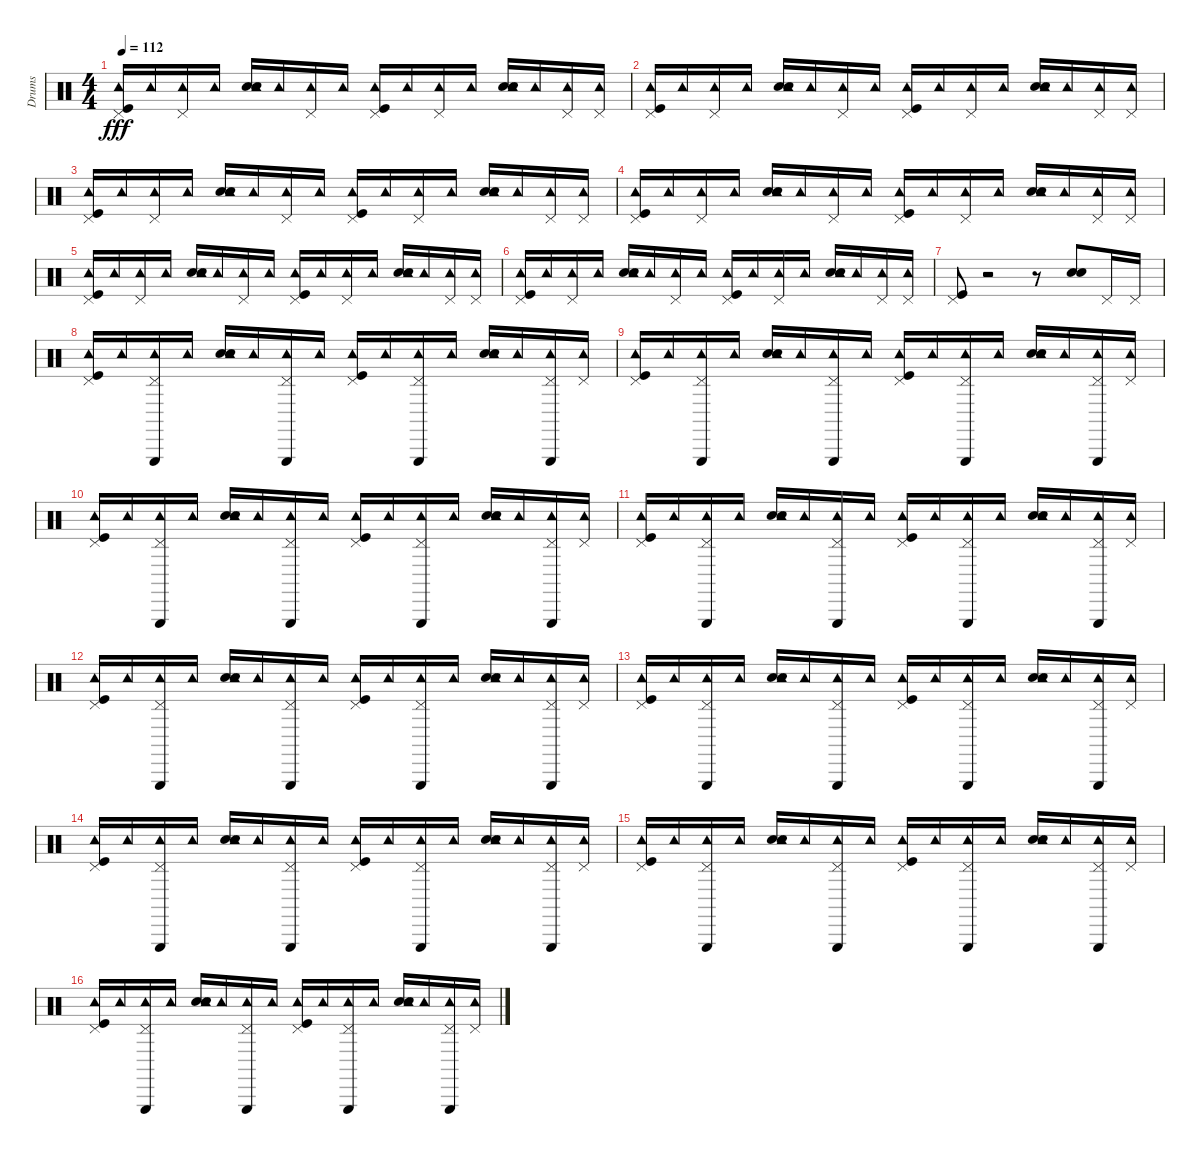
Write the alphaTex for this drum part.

\track ("Drums" "Drums") {instrument percussion}
\staff {score}
\articulation defaults
\ts (4 4)
\tempo 112
\clef neutral
\ks c
("Pedal Hi-Hat (hit)" "Tambourine (hit)" "Kick (hit)").16{dy fff} "Tambourine (hit)".16 ("Pedal Hi-Hat (hit)" "Tambourine (hit)").16 "Tambourine (hit)".16 ("Snare (hit) 2" "Hand Clap (hit)" "Tambourine (hit)").16 "Tambourine (hit)".16 ("Pedal Hi-Hat (hit)" "Tambourine (hit)").16 "Tambourine (hit)".16 ("Pedal Hi-Hat (hit)" "Tambourine (hit)" "Kick (hit)").16 "Tambourine (hit)".16 ("Pedal Hi-Hat (hit)" "Tambourine (hit)").16 "Tambourine (hit)".16 ("Snare (hit) 2" "Hand Clap (hit)" "Tambourine (hit)").16 "Tambourine (hit)".16 ("Pedal Hi-Hat (hit)" "Tambourine (hit)").16 ("Pedal Hi-Hat (hit)" "Tambourine (hit)").16 |
("Pedal Hi-Hat (hit)" "Tambourine (hit)" "Kick (hit)").16 "Tambourine (hit)".16 ("Pedal Hi-Hat (hit)" "Tambourine (hit)").16 "Tambourine (hit)".16 ("Snare (hit) 2" "Hand Clap (hit)" "Tambourine (hit)").16 "Tambourine (hit)".16 ("Pedal Hi-Hat (hit)" "Tambourine (hit)").16 "Tambourine (hit)".16 ("Pedal Hi-Hat (hit)" "Tambourine (hit)" "Kick (hit)").16 "Tambourine (hit)".16 ("Pedal Hi-Hat (hit)" "Tambourine (hit)").16 "Tambourine (hit)".16 ("Snare (hit) 2" "Hand Clap (hit)" "Tambourine (hit)").16 "Tambourine (hit)".16 ("Pedal Hi-Hat (hit)" "Tambourine (hit)").16 ("Pedal Hi-Hat (hit)" "Tambourine (hit)").16 |
("Pedal Hi-Hat (hit)" "Tambourine (hit)" "Kick (hit)").16 "Tambourine (hit)".16 ("Pedal Hi-Hat (hit)" "Tambourine (hit)").16 "Tambourine (hit)".16 ("Snare (hit) 2" "Hand Clap (hit)" "Tambourine (hit)").16 "Tambourine (hit)".16 ("Pedal Hi-Hat (hit)" "Tambourine (hit)").16 "Tambourine (hit)".16 ("Pedal Hi-Hat (hit)" "Tambourine (hit)" "Kick (hit)").16 "Tambourine (hit)".16 ("Pedal Hi-Hat (hit)" "Tambourine (hit)").16 "Tambourine (hit)".16 ("Snare (hit) 2" "Hand Clap (hit)" "Tambourine (hit)").16 "Tambourine (hit)".16 ("Pedal Hi-Hat (hit)" "Tambourine (hit)").16 ("Pedal Hi-Hat (hit)" "Tambourine (hit)").16 |
("Pedal Hi-Hat (hit)" "Tambourine (hit)" "Kick (hit)").16 "Tambourine (hit)".16 ("Pedal Hi-Hat (hit)" "Tambourine (hit)").16 "Tambourine (hit)".16 ("Snare (hit) 2" "Hand Clap (hit)" "Tambourine (hit)").16 "Tambourine (hit)".16 ("Pedal Hi-Hat (hit)" "Tambourine (hit)").16 "Tambourine (hit)".16 ("Pedal Hi-Hat (hit)" "Tambourine (hit)" "Kick (hit)").16 "Tambourine (hit)".16 ("Pedal Hi-Hat (hit)" "Tambourine (hit)").16 "Tambourine (hit)".16 ("Snare (hit) 2" "Hand Clap (hit)" "Tambourine (hit)").16 "Tambourine (hit)".16 ("Pedal Hi-Hat (hit)" "Tambourine (hit)").16 ("Pedal Hi-Hat (hit)" "Tambourine (hit)").16 |
("Pedal Hi-Hat (hit)" "Tambourine (hit)" "Kick (hit)").16 "Tambourine (hit)".16 ("Pedal Hi-Hat (hit)" "Tambourine (hit)").16 "Tambourine (hit)".16 ("Snare (hit) 2" "Hand Clap (hit)" "Tambourine (hit)").16 "Tambourine (hit)".16 ("Pedal Hi-Hat (hit)" "Tambourine (hit)").16 "Tambourine (hit)".16 ("Pedal Hi-Hat (hit)" "Tambourine (hit)" "Kick (hit)").16 "Tambourine (hit)".16 ("Pedal Hi-Hat (hit)" "Tambourine (hit)").16 "Tambourine (hit)".16 ("Snare (hit) 2" "Hand Clap (hit)" "Tambourine (hit)").16 "Tambourine (hit)".16 ("Pedal Hi-Hat (hit)" "Tambourine (hit)").16 ("Pedal Hi-Hat (hit)" "Tambourine (hit)").16 |
("Pedal Hi-Hat (hit)" "Tambourine (hit)" "Kick (hit)").16 "Tambourine (hit)".16 ("Pedal Hi-Hat (hit)" "Tambourine (hit)").16 "Tambourine (hit)".16 ("Snare (hit) 2" "Hand Clap (hit)" "Tambourine (hit)").16 "Tambourine (hit)".16 ("Pedal Hi-Hat (hit)" "Tambourine (hit)").16 "Tambourine (hit)".16 ("Pedal Hi-Hat (hit)" "Tambourine (hit)" "Kick (hit)").16 "Tambourine (hit)".16 ("Pedal Hi-Hat (hit)" "Tambourine (hit)").16 "Tambourine (hit)".16 ("Snare (hit) 2" "Hand Clap (hit)" "Tambourine (hit)").16 "Tambourine (hit)".16 ("Pedal Hi-Hat (hit)" "Tambourine (hit)").16 ("Pedal Hi-Hat (hit)" "Tambourine (hit)").16 |
("Pedal Hi-Hat (hit)" "Kick (hit)").8 r.2 r.8 ("Snare (hit) 2" "Hand Clap (hit)").8 "Pedal Hi-Hat (hit)".16 "Pedal Hi-Hat (hit)".16 |
("Pedal Hi-Hat (hit)" "Tambourine (hit)" "Kick (hit)").16 "Tambourine (hit)".16 ("Pedal Hi-Hat (hit)" "Triangle (hit)" "Tambourine (hit)").16 "Tambourine (hit)".16 ("Snare (hit) 2" "Hand Clap (hit)" "Tambourine (hit)").16 "Tambourine (hit)".16 ("Pedal Hi-Hat (hit)" "Triangle (hit)" "Tambourine (hit)").16 "Tambourine (hit)".16 ("Pedal Hi-Hat (hit)" "Tambourine (hit)" "Kick (hit)").16 "Tambourine (hit)".16 ("Pedal Hi-Hat (hit)" "Triangle (hit)" "Tambourine (hit)").16 "Tambourine (hit)".16 ("Snare (hit) 2" "Hand Clap (hit)" "Tambourine (hit)").16 "Tambourine (hit)".16 ("Pedal Hi-Hat (hit)" "Triangle (hit)" "Tambourine (hit)").16 ("Pedal Hi-Hat (hit)" "Tambourine (hit)").16 |
("Pedal Hi-Hat (hit)" "Tambourine (hit)" "Kick (hit)").16 "Tambourine (hit)".16 ("Pedal Hi-Hat (hit)" "Triangle (hit)" "Tambourine (hit)").16 "Tambourine (hit)".16 ("Snare (hit) 2" "Hand Clap (hit)" "Tambourine (hit)").16 "Tambourine (hit)".16 ("Pedal Hi-Hat (hit)" "Triangle (hit)" "Tambourine (hit)").16 "Tambourine (hit)".16 ("Pedal Hi-Hat (hit)" "Tambourine (hit)" "Kick (hit)").16 "Tambourine (hit)".16 ("Pedal Hi-Hat (hit)" "Triangle (hit)" "Tambourine (hit)").16 "Tambourine (hit)".16 ("Snare (hit) 2" "Hand Clap (hit)" "Tambourine (hit)").16 "Tambourine (hit)".16 ("Pedal Hi-Hat (hit)" "Triangle (hit)" "Tambourine (hit)").16 ("Pedal Hi-Hat (hit)" "Tambourine (hit)").16 |
("Pedal Hi-Hat (hit)" "Tambourine (hit)" "Kick (hit)").16 "Tambourine (hit)".16 ("Pedal Hi-Hat (hit)" "Triangle (hit)" "Tambourine (hit)").16 "Tambourine (hit)".16 ("Snare (hit) 2" "Hand Clap (hit)" "Tambourine (hit)").16 "Tambourine (hit)".16 ("Pedal Hi-Hat (hit)" "Triangle (hit)" "Tambourine (hit)").16 "Tambourine (hit)".16 ("Pedal Hi-Hat (hit)" "Tambourine (hit)" "Kick (hit)").16 "Tambourine (hit)".16 ("Pedal Hi-Hat (hit)" "Triangle (hit)" "Tambourine (hit)").16 "Tambourine (hit)".16 ("Snare (hit) 2" "Hand Clap (hit)" "Tambourine (hit)").16 "Tambourine (hit)".16 ("Pedal Hi-Hat (hit)" "Triangle (hit)" "Tambourine (hit)").16 ("Pedal Hi-Hat (hit)" "Tambourine (hit)").16 |
("Pedal Hi-Hat (hit)" "Tambourine (hit)" "Kick (hit)").16 "Tambourine (hit)".16 ("Pedal Hi-Hat (hit)" "Triangle (hit)" "Tambourine (hit)").16 "Tambourine (hit)".16 ("Snare (hit) 2" "Hand Clap (hit)" "Tambourine (hit)").16 "Tambourine (hit)".16 ("Pedal Hi-Hat (hit)" "Triangle (hit)" "Tambourine (hit)").16 "Tambourine (hit)".16 ("Pedal Hi-Hat (hit)" "Tambourine (hit)" "Kick (hit)").16 "Tambourine (hit)".16 ("Pedal Hi-Hat (hit)" "Triangle (hit)" "Tambourine (hit)").16 "Tambourine (hit)".16 ("Snare (hit) 2" "Hand Clap (hit)" "Tambourine (hit)").16 "Tambourine (hit)".16 ("Pedal Hi-Hat (hit)" "Triangle (hit)" "Tambourine (hit)").16 ("Pedal Hi-Hat (hit)" "Tambourine (hit)").16 |
("Pedal Hi-Hat (hit)" "Tambourine (hit)" "Kick (hit)").16 "Tambourine (hit)".16 ("Pedal Hi-Hat (hit)" "Triangle (hit)" "Tambourine (hit)").16 "Tambourine (hit)".16 ("Snare (hit) 2" "Hand Clap (hit)" "Tambourine (hit)").16 "Tambourine (hit)".16 ("Pedal Hi-Hat (hit)" "Triangle (hit)" "Tambourine (hit)").16 "Tambourine (hit)".16 ("Pedal Hi-Hat (hit)" "Tambourine (hit)" "Kick (hit)").16 "Tambourine (hit)".16 ("Pedal Hi-Hat (hit)" "Triangle (hit)" "Tambourine (hit)").16 "Tambourine (hit)".16 ("Snare (hit) 2" "Hand Clap (hit)" "Tambourine (hit)").16 "Tambourine (hit)".16 ("Pedal Hi-Hat (hit)" "Triangle (hit)" "Tambourine (hit)").16 ("Pedal Hi-Hat (hit)" "Tambourine (hit)").16 |
("Pedal Hi-Hat (hit)" "Tambourine (hit)" "Kick (hit)").16 "Tambourine (hit)".16 ("Pedal Hi-Hat (hit)" "Triangle (hit)" "Tambourine (hit)").16 "Tambourine (hit)".16 ("Snare (hit) 2" "Hand Clap (hit)" "Tambourine (hit)").16 "Tambourine (hit)".16 ("Pedal Hi-Hat (hit)" "Triangle (hit)" "Tambourine (hit)").16 "Tambourine (hit)".16 ("Pedal Hi-Hat (hit)" "Tambourine (hit)" "Kick (hit)").16 "Tambourine (hit)".16 ("Pedal Hi-Hat (hit)" "Triangle (hit)" "Tambourine (hit)").16 "Tambourine (hit)".16 ("Snare (hit) 2" "Hand Clap (hit)" "Tambourine (hit)").16 "Tambourine (hit)".16 ("Pedal Hi-Hat (hit)" "Triangle (hit)" "Tambourine (hit)").16 ("Pedal Hi-Hat (hit)" "Tambourine (hit)").16 |
("Pedal Hi-Hat (hit)" "Tambourine (hit)" "Kick (hit)").16 "Tambourine (hit)".16 ("Pedal Hi-Hat (hit)" "Triangle (hit)" "Tambourine (hit)").16 "Tambourine (hit)".16 ("Snare (hit) 2" "Hand Clap (hit)" "Tambourine (hit)").16 "Tambourine (hit)".16 ("Pedal Hi-Hat (hit)" "Triangle (hit)" "Tambourine (hit)").16 "Tambourine (hit)".16 ("Pedal Hi-Hat (hit)" "Tambourine (hit)" "Kick (hit)").16 "Tambourine (hit)".16 ("Pedal Hi-Hat (hit)" "Triangle (hit)" "Tambourine (hit)").16 "Tambourine (hit)".16 ("Snare (hit) 2" "Hand Clap (hit)" "Tambourine (hit)").16 "Tambourine (hit)".16 ("Pedal Hi-Hat (hit)" "Triangle (hit)" "Tambourine (hit)").16 ("Pedal Hi-Hat (hit)" "Tambourine (hit)").16 |
("Pedal Hi-Hat (hit)" "Tambourine (hit)" "Kick (hit)").16 "Tambourine (hit)".16 ("Pedal Hi-Hat (hit)" "Triangle (hit)" "Tambourine (hit)").16 "Tambourine (hit)".16 ("Snare (hit) 2" "Hand Clap (hit)" "Tambourine (hit)").16 "Tambourine (hit)".16 ("Pedal Hi-Hat (hit)" "Triangle (hit)" "Tambourine (hit)").16 "Tambourine (hit)".16 ("Pedal Hi-Hat (hit)" "Tambourine (hit)" "Kick (hit)").16 "Tambourine (hit)".16 ("Pedal Hi-Hat (hit)" "Triangle (hit)" "Tambourine (hit)").16 "Tambourine (hit)".16 ("Snare (hit) 2" "Hand Clap (hit)" "Tambourine (hit)").16 "Tambourine (hit)".16 ("Pedal Hi-Hat (hit)" "Triangle (hit)" "Tambourine (hit)").16 ("Pedal Hi-Hat (hit)" "Tambourine (hit)").16 |
("Pedal Hi-Hat (hit)" "Tambourine (hit)" "Kick (hit)").16 "Tambourine (hit)".16 ("Pedal Hi-Hat (hit)" "Triangle (hit)" "Tambourine (hit)").16 "Tambourine (hit)".16 ("Snare (hit) 2" "Hand Clap (hit)" "Tambourine (hit)").16 "Tambourine (hit)".16 ("Pedal Hi-Hat (hit)" "Triangle (hit)" "Tambourine (hit)").16 "Tambourine (hit)".16 ("Pedal Hi-Hat (hit)" "Tambourine (hit)" "Kick (hit)").16 "Tambourine (hit)".16 ("Pedal Hi-Hat (hit)" "Triangle (hit)" "Tambourine (hit)").16 "Tambourine (hit)".16 ("Snare (hit) 2" "Hand Clap (hit)" "Tambourine (hit)").16 "Tambourine (hit)".16 ("Pedal Hi-Hat (hit)" "Triangle (hit)" "Tambourine (hit)").16 ("Pedal Hi-Hat (hit)" "Tambourine (hit)").16
